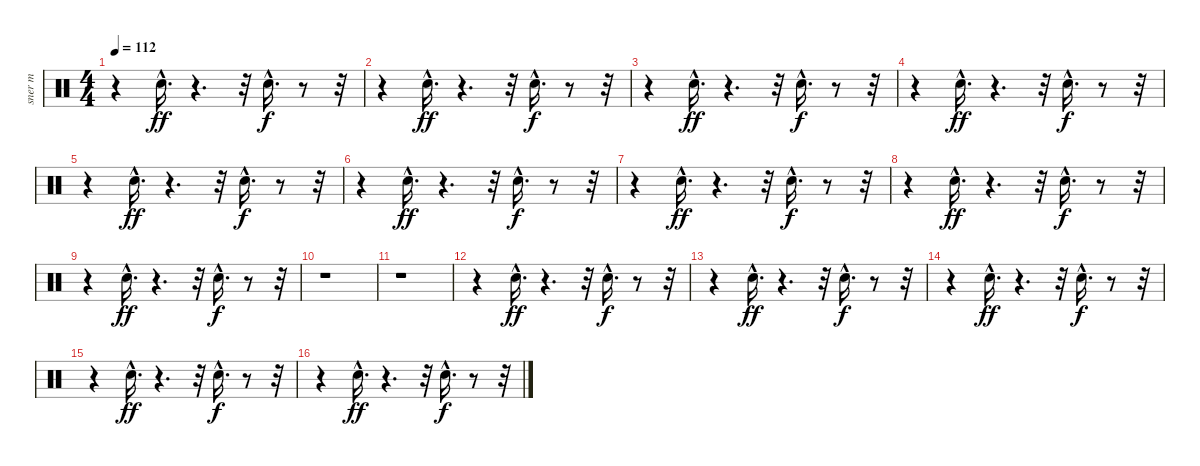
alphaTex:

\track ("sner m" "sner m") {instrument percussion}
\staff {score}
\articulation defaults
\ts (4 4)
\tempo 112
\clef neutral
\ks c
r.4{dy f} "Snare (hit) 2"{hac}.16{d dy ff} r.4{d} r.32 "Snare (hit) 2"{hac}.16{d dy f} r.8 r.32 |
r.4 "Snare (hit) 2"{hac}.16{d dy ff} r.4{d} r.32 "Snare (hit) 2"{hac}.16{d dy f} r.8 r.32 |
r.4 "Snare (hit) 2"{hac}.16{d dy ff} r.4{d} r.32 "Snare (hit) 2"{hac}.16{d dy f} r.8 r.32 |
r.4 "Snare (hit) 2"{hac}.16{d dy ff} r.4{d} r.32 "Snare (hit) 2"{hac}.16{d dy f} r.8 r.32 |
r.4 "Snare (hit) 2"{hac}.16{d dy ff} r.4{d} r.32 "Snare (hit) 2"{hac}.16{d dy f} r.8 r.32 |
r.4 "Snare (hit) 2"{hac}.16{d dy ff} r.4{d} r.32 "Snare (hit) 2"{hac}.16{d dy f} r.8 r.32 |
r.4 "Snare (hit) 2"{hac}.16{d dy ff} r.4{d} r.32 "Snare (hit) 2"{hac}.16{d dy f} r.8 r.32 |
r.4 "Snare (hit) 2"{hac}.16{d dy ff} r.4{d} r.32 "Snare (hit) 2"{hac}.16{d dy f} r.8 r.32 |
r.4 "Snare (hit) 2"{hac}.16{d dy ff} r.4{d} r.32 "Snare (hit) 2"{hac}.16{d dy f} r.8 r.32 |
r.1 |
r.1 |
r.4 "Snare (hit) 2"{hac}.16{d dy ff} r.4{d} r.32 "Snare (hit) 2"{hac}.16{d dy f} r.8 r.32 |
r.4 "Snare (hit) 2"{hac}.16{d dy ff} r.4{d} r.32 "Snare (hit) 2"{hac}.16{d dy f} r.8 r.32 |
r.4 "Snare (hit) 2"{hac}.16{d dy ff} r.4{d} r.32 "Snare (hit) 2"{hac}.16{d dy f} r.8 r.32 |
r.4 "Snare (hit) 2"{hac}.16{d dy ff} r.4{d} r.32 "Snare (hit) 2"{hac}.16{d dy f} r.8 r.32 |
r.4 "Snare (hit) 2"{hac}.16{d dy ff} r.4{d} r.32 "Snare (hit) 2"{hac}.16{d dy f} r.8 r.32
